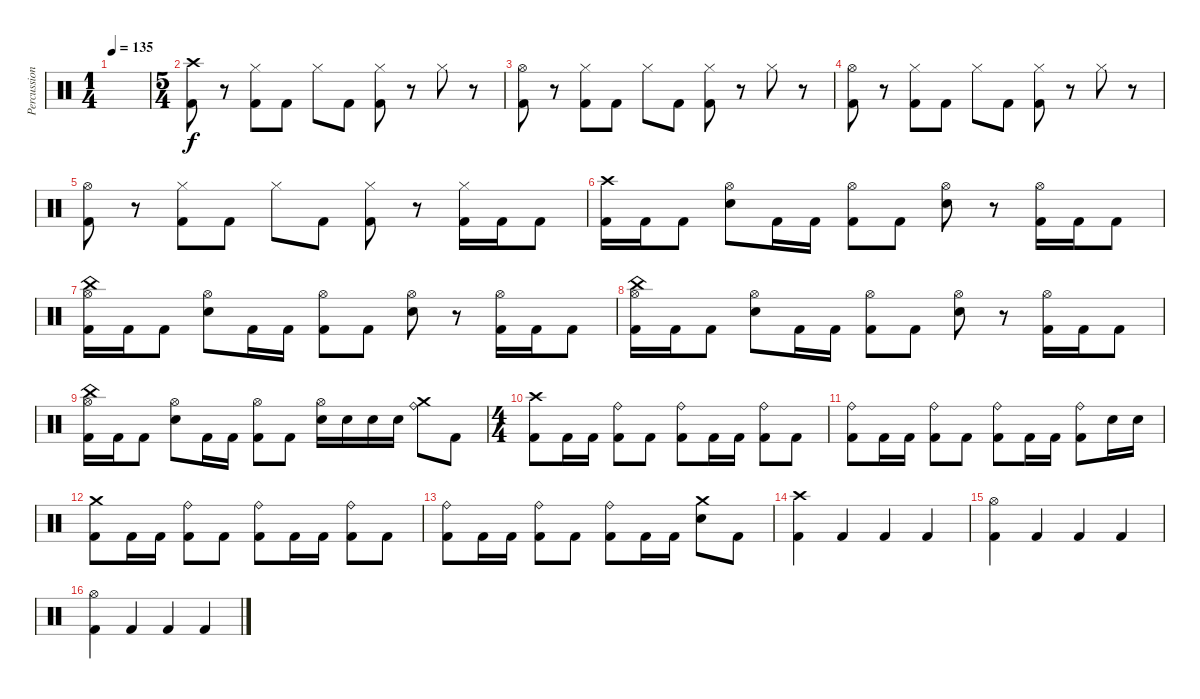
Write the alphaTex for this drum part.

\track ("Percussion" "Percussion") {instrument percussion}
\staff {score}
\articulation defaults
\ts (1 4)
\tempo 135
\clef neutral
\ks c
|
\ts (5 4)
("Crash high (hit)" "Kick (hit) 2").8 r.8 ("Hi-Hat (closed)" "Kick (hit) 2").8 "Kick (hit) 2".8 "Hi-Hat (closed)".8 "Kick (hit) 2".8 ("Hi-Hat (closed)" "Kick (hit) 2").8 r.8 "Hi-Hat (closed)".8 r.8 |
("Hi-Hat (open)" "Kick (hit) 2").8 r.8 ("Hi-Hat (closed)" "Kick (hit) 2").8 "Kick (hit) 2".8 "Hi-Hat (closed)".8 "Kick (hit) 2".8 ("Hi-Hat (closed)" "Kick (hit) 2").8 r.8 "Hi-Hat (closed)".8 r.8 |
("Hi-Hat (open)" "Kick (hit) 2").8 r.8 ("Hi-Hat (closed)" "Kick (hit) 2").8 "Kick (hit) 2".8 "Hi-Hat (closed)".8 "Kick (hit) 2".8 ("Hi-Hat (closed)" "Kick (hit) 2").8 r.8 "Hi-Hat (closed)".8 r.8 |
("Hi-Hat (open)" "Kick (hit) 2").8 r.8 ("Hi-Hat (closed)" "Kick (hit) 2").8 "Kick (hit) 2".8 "Hi-Hat (closed)".8 "Kick (hit) 2".8 ("Hi-Hat (closed)" "Kick (hit) 2").8 r.8 ("Hi-Hat (closed)" "Kick (hit) 2").16 "Kick (hit) 2".16 "Kick (hit) 2".8 |
("Crash high (hit)" "Kick (hit) 2").16 "Kick (hit) 2".16 "Kick (hit) 2".8 ("Hi-Hat (open)" "Electric Snare (hit)").8 "Kick (hit) 2".16 "Kick (hit) 2".16 ("Hi-Hat (open)" "Kick (hit) 2").8 "Kick (hit) 2".8 ("Hi-Hat (open)" "Electric Snare (hit)").8 r.8 ("Hi-Hat (open)" "Kick (hit) 2").16 "Kick (hit) 2".16 "Kick (hit) 2".8 |
("Hi-Hat (open)" "China (hit)" "Kick (hit) 2").16 "Kick (hit) 2".16 "Kick (hit) 2".8 ("Hi-Hat (open)" "Electric Snare (hit)").8 "Kick (hit) 2".16 "Kick (hit) 2".16 ("Hi-Hat (open)" "Kick (hit) 2").8 "Kick (hit) 2".8 ("Hi-Hat (open)" "Electric Snare (hit)").8 r.8 ("Hi-Hat (open)" "Kick (hit) 2").16 "Kick (hit) 2".16 "Kick (hit) 2".8 |
("Hi-Hat (open)" "China (hit)" "Kick (hit) 2").16 "Kick (hit) 2".16 "Kick (hit) 2".8 ("Hi-Hat (open)" "Electric Snare (hit)").8 "Kick (hit) 2".16 "Kick (hit) 2".16 ("Hi-Hat (open)" "Kick (hit) 2").8 "Kick (hit) 2".8 ("Hi-Hat (open)" "Electric Snare (hit)").8 r.8 ("Hi-Hat (open)" "Kick (hit) 2").16 "Kick (hit) 2".16 "Kick (hit) 2".8 |
("Hi-Hat (open)" "China (hit)" "Kick (hit) 2").16 "Kick (hit) 2".16 "Kick (hit) 2".8 ("Hi-Hat (open)" "Electric Snare (hit)").8 "Kick (hit) 2".16 "Kick (hit) 2".16 ("Hi-Hat (open)" "Kick (hit) 2").8 "Kick (hit) 2".8 ("Hi-Hat (open)" "Electric Snare (hit)").16 "Electric Snare (hit)".16 "Electric Snare (hit)".16 "Electric Snare (hit)".16 ("Crash medium (hit)" "Ride (bell)").8 "Kick (hit) 2".8 |
\ts (4 4)
("Crash high (hit)" "Kick (hit) 2").8 "Kick (hit) 2".16 "Kick (hit) 2".16 ("Ride (bell)" "Kick (hit) 2").8 "Kick (hit) 2".8 ("Ride (bell)" "Kick (hit) 2").8 "Kick (hit) 2".16 "Kick (hit) 2".16 ("Ride (bell)" "Kick (hit) 2").8 "Kick (hit) 2".8 |
("Ride (bell)" "Kick (hit) 2").8 "Kick (hit) 2".16 "Kick (hit) 2".16 ("Ride (bell)" "Kick (hit) 2").8 "Kick (hit) 2".8 ("Ride (bell)" "Kick (hit) 2").8 "Kick (hit) 2".16 "Kick (hit) 2".16 ("Ride (bell)" "Kick (hit) 2").8 "Electric Snare (hit)".16 "Electric Snare (hit)".16 |
("Crash medium (hit)" "Kick (hit) 2").8 "Kick (hit) 2".16 "Kick (hit) 2".16 ("Ride (bell)" "Kick (hit) 2").8 "Kick (hit) 2".8 ("Ride (bell)" "Kick (hit) 2").8 "Kick (hit) 2".16 "Kick (hit) 2".16 ("Ride (bell)" "Kick (hit) 2").8 "Kick (hit) 2".8 |
("Ride (bell)" "Kick (hit) 2").8 "Kick (hit) 2".16 "Kick (hit) 2".16 ("Ride (bell)" "Kick (hit) 2").8 "Kick (hit) 2".8 ("Ride (bell)" "Kick (hit) 2").8 "Kick (hit) 2".16 "Kick (hit) 2".16 ("Crash medium (hit)" "Electric Snare (hit)").8 "Kick (hit) 2".8 |
("Crash high (hit)" "Kick (hit) 2").4 "Kick (hit) 2".4 "Kick (hit) 2".4 "Kick (hit) 2".4 |
("Hi-Hat (open)" "Kick (hit) 2").4 "Kick (hit) 2".4 "Kick (hit) 2".4 "Kick (hit) 2".4 |
("Hi-Hat (open)" "Kick (hit) 2").4 "Kick (hit) 2".4 "Kick (hit) 2".4 "Kick (hit) 2".4
